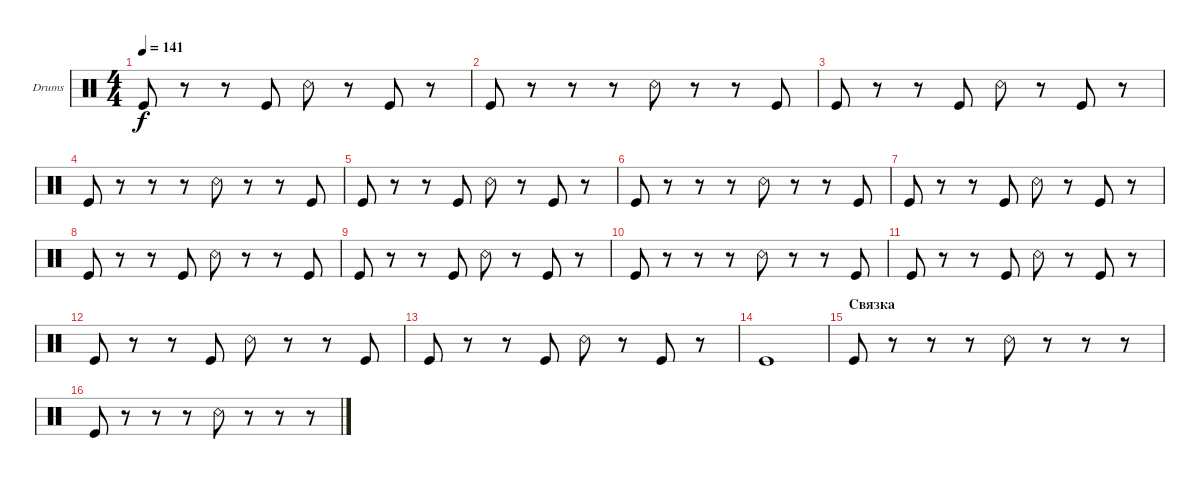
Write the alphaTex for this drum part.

\defaultSystemsLayout 4
\bracketExtendMode groupsimilarinstruments
\firstSystemTrackNameOrientation horizontal
\otherSystemsTrackNameOrientation horizontal
\track ("Drumkit" "Drums") {instrument percussion}
\staff {score}
\articulation defaults
\ts (4 4)
\tempo 141
\clef neutral
\ks c "Kick (hit)".8{dy f}
r.8 r.8 "Kick (hit)".8 "Snare (rim shot)".8 r.8 "Kick (hit)".8 r.8 |
"Kick (hit)".8 r.8 r.8 r.8 "Snare (rim shot)".8 r.8 r.8 "Kick (hit)".8 |
"Kick (hit)".8 r.8 r.8 "Kick (hit)".8 "Snare (rim shot)".8 r.8 "Kick (hit)".8 r.8 |
"Kick (hit)".8 r.8 r.8 r.8 "Snare (rim shot)".8 r.8 r.8 "Kick (hit)".8 |
"Kick (hit)".8 r.8 r.8 "Kick (hit)".8 "Snare (rim shot)".8 r.8 "Kick (hit)".8 r.8 |
"Kick (hit)".8 r.8 r.8 r.8 "Snare (rim shot)".8 r.8 r.8 "Kick (hit)".8 |
"Kick (hit)".8 r.8 r.8 "Kick (hit)".8 "Snare (rim shot)".8 r.8 "Kick (hit)".8 r.8 |
"Kick (hit)".8 r.8 r.8 "Kick (hit)".8 "Snare (rim shot)".8 r.8 r.8 "Kick (hit)".8 |
"Kick (hit)".8 r.8 r.8 "Kick (hit)".8 "Snare (rim shot)".8 r.8 "Kick (hit)".8 r.8 |
"Kick (hit)".8 r.8 r.8 r.8 "Snare (rim shot)".8 r.8 r.8 "Kick (hit)".8 |
"Kick (hit)".8 r.8 r.8 "Kick (hit)".8 "Snare (rim shot)".8 r.8 "Kick (hit)".8 r.8 |
"Kick (hit)".8 r.8 r.8 "Kick (hit)".8 "Snare (rim shot)".8 r.8 r.8 "Kick (hit)".8 |
"Kick (hit)".8 r.8 r.8 "Kick (hit)".8 "Snare (rim shot)".8 r.8 "Kick (hit)".8 r.8 |
"Kick (hit)".1 |
\section ("" "Связка")
"Kick (hit)".8 r.8 r.8 r.8 "Snare (rim shot)".8 r.8 r.8 r.8 |
"Kick (hit)".8 r.8 r.8 r.8 "Snare (rim shot)".8 r.8 r.8 r.8
